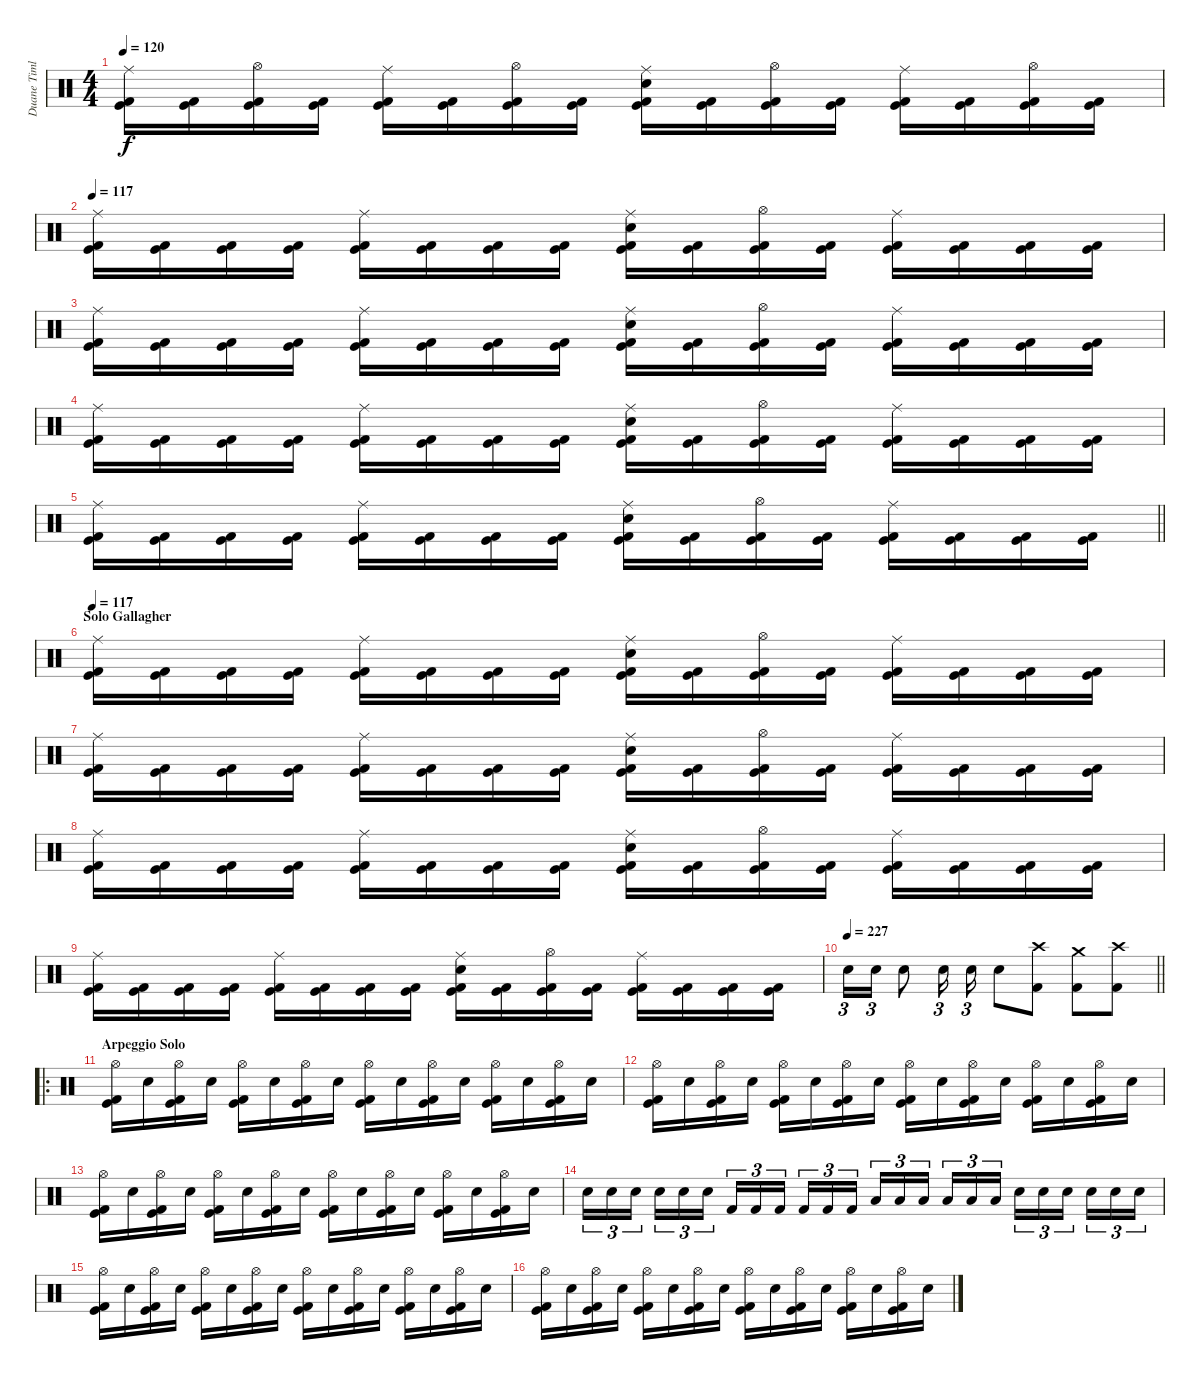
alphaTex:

\track ("Duane Timlin" "Duane Timl") {instrument percussion}
\staff {score}
\articulation defaults
\ts (4 4)
\tempo 120
\clef neutral
\ks c
("Ride (middle)" "Kick (hit)" "Kick (hit) 2").16{dy f} ("Kick (hit)" "Kick (hit) 2").16 ("Hi-Hat (open)" "Kick (hit)" "Kick (hit) 2").16 ("Kick (hit)" "Kick (hit) 2").16 ("Ride (middle)" "Kick (hit)" "Kick (hit) 2").16 ("Kick (hit)" "Kick (hit) 2").16 ("Hi-Hat (open)" "Kick (hit)" "Kick (hit) 2").16 ("Kick (hit)" "Kick (hit) 2").16 ("Ride (middle)" "Snare (hit) 2" "Kick (hit)" "Kick (hit) 2").16 ("Kick (hit)" "Kick (hit) 2").16 ("Hi-Hat (open)" "Kick (hit)" "Kick (hit) 2").16 ("Kick (hit)" "Kick (hit) 2").16 ("Ride (middle)" "Kick (hit)" "Kick (hit) 2").16 ("Kick (hit)" "Kick (hit) 2").16 ("Hi-Hat (open)" "Kick (hit)" "Kick (hit) 2").16 ("Kick (hit)" "Kick (hit) 2").16 |
\tempo 117
("Ride (middle)" "Kick (hit)" "Kick (hit) 2").16 ("Kick (hit)" "Kick (hit) 2").16 ("Kick (hit)" "Kick (hit) 2").16 ("Kick (hit)" "Kick (hit) 2").16 ("Ride (middle)" "Kick (hit)" "Kick (hit) 2").16 ("Kick (hit)" "Kick (hit) 2").16 ("Kick (hit)" "Kick (hit) 2").16 ("Kick (hit)" "Kick (hit) 2").16 ("Ride (middle)" "Snare (hit) 2" "Kick (hit)" "Kick (hit) 2").16 ("Kick (hit)" "Kick (hit) 2").16 ("Hi-Hat (open)" "Kick (hit)" "Kick (hit) 2").16 ("Kick (hit)" "Kick (hit) 2").16 ("Ride (middle)" "Kick (hit)" "Kick (hit) 2").16 ("Kick (hit)" "Kick (hit) 2").16 ("Kick (hit)" "Kick (hit) 2").16 ("Kick (hit)" "Kick (hit) 2").16 |
("Ride (middle)" "Kick (hit)" "Kick (hit) 2").16 ("Kick (hit)" "Kick (hit) 2").16 ("Kick (hit)" "Kick (hit) 2").16 ("Kick (hit)" "Kick (hit) 2").16 ("Ride (middle)" "Kick (hit)" "Kick (hit) 2").16 ("Kick (hit)" "Kick (hit) 2").16 ("Kick (hit)" "Kick (hit) 2").16 ("Kick (hit)" "Kick (hit) 2").16 ("Ride (middle)" "Snare (hit) 2" "Kick (hit)" "Kick (hit) 2").16 ("Kick (hit)" "Kick (hit) 2").16 ("Hi-Hat (open)" "Kick (hit)" "Kick (hit) 2").16 ("Kick (hit)" "Kick (hit) 2").16 ("Ride (middle)" "Kick (hit)" "Kick (hit) 2").16 ("Kick (hit)" "Kick (hit) 2").16 ("Kick (hit)" "Kick (hit) 2").16 ("Kick (hit)" "Kick (hit) 2").16 |
("Ride (middle)" "Kick (hit)" "Kick (hit) 2").16 ("Kick (hit)" "Kick (hit) 2").16 ("Kick (hit)" "Kick (hit) 2").16 ("Kick (hit)" "Kick (hit) 2").16 ("Ride (middle)" "Kick (hit)" "Kick (hit) 2").16 ("Kick (hit)" "Kick (hit) 2").16 ("Kick (hit)" "Kick (hit) 2").16 ("Kick (hit)" "Kick (hit) 2").16 ("Ride (middle)" "Snare (hit) 2" "Kick (hit)" "Kick (hit) 2").16 ("Kick (hit)" "Kick (hit) 2").16 ("Hi-Hat (open)" "Kick (hit)" "Kick (hit) 2").16 ("Kick (hit)" "Kick (hit) 2").16 ("Ride (middle)" "Kick (hit)" "Kick (hit) 2").16 ("Kick (hit)" "Kick (hit) 2").16 ("Kick (hit)" "Kick (hit) 2").16 ("Kick (hit)" "Kick (hit) 2").16 |
\barLineRight lightlight
("Ride (middle)" "Kick (hit)" "Kick (hit) 2").16 ("Kick (hit)" "Kick (hit) 2").16 ("Kick (hit)" "Kick (hit) 2").16 ("Kick (hit)" "Kick (hit) 2").16 ("Ride (middle)" "Kick (hit)" "Kick (hit) 2").16 ("Kick (hit)" "Kick (hit) 2").16 ("Kick (hit)" "Kick (hit) 2").16 ("Kick (hit)" "Kick (hit) 2").16 ("Ride (middle)" "Snare (hit) 2" "Kick (hit)" "Kick (hit) 2").16 ("Kick (hit)" "Kick (hit) 2").16 ("Hi-Hat (open)" "Kick (hit)" "Kick (hit) 2").16 ("Kick (hit)" "Kick (hit) 2").16 ("Ride (middle)" "Kick (hit)" "Kick (hit) 2").16 ("Kick (hit)" "Kick (hit) 2").16 ("Kick (hit)" "Kick (hit) 2").16 ("Kick (hit)" "Kick (hit) 2").16 |
\section ("" "Solo Gallagher")
\tempo 117
("Ride (middle)" "Kick (hit)" "Kick (hit) 2").16 ("Kick (hit)" "Kick (hit) 2").16 ("Kick (hit)" "Kick (hit) 2").16 ("Kick (hit)" "Kick (hit) 2").16 ("Ride (middle)" "Kick (hit)" "Kick (hit) 2").16 ("Kick (hit)" "Kick (hit) 2").16 ("Kick (hit)" "Kick (hit) 2").16 ("Kick (hit)" "Kick (hit) 2").16 ("Ride (middle)" "Snare (hit) 2" "Kick (hit)" "Kick (hit) 2").16 ("Kick (hit)" "Kick (hit) 2").16 ("Hi-Hat (open)" "Kick (hit)" "Kick (hit) 2").16 ("Kick (hit)" "Kick (hit) 2").16 ("Ride (middle)" "Kick (hit)" "Kick (hit) 2").16 ("Kick (hit)" "Kick (hit) 2").16 ("Kick (hit)" "Kick (hit) 2").16 ("Kick (hit)" "Kick (hit) 2").16 |
("Ride (middle)" "Kick (hit)" "Kick (hit) 2").16 ("Kick (hit)" "Kick (hit) 2").16 ("Kick (hit)" "Kick (hit) 2").16 ("Kick (hit)" "Kick (hit) 2").16 ("Ride (middle)" "Kick (hit)" "Kick (hit) 2").16 ("Kick (hit)" "Kick (hit) 2").16 ("Kick (hit)" "Kick (hit) 2").16 ("Kick (hit)" "Kick (hit) 2").16 ("Ride (middle)" "Snare (hit) 2" "Kick (hit)" "Kick (hit) 2").16 ("Kick (hit)" "Kick (hit) 2").16 ("Hi-Hat (open)" "Kick (hit)" "Kick (hit) 2").16 ("Kick (hit)" "Kick (hit) 2").16 ("Ride (middle)" "Kick (hit)" "Kick (hit) 2").16 ("Kick (hit)" "Kick (hit) 2").16 ("Kick (hit)" "Kick (hit) 2").16 ("Kick (hit)" "Kick (hit) 2").16 |
("Ride (middle)" "Kick (hit)" "Kick (hit) 2").16 ("Kick (hit)" "Kick (hit) 2").16 ("Kick (hit)" "Kick (hit) 2").16 ("Kick (hit)" "Kick (hit) 2").16 ("Ride (middle)" "Kick (hit)" "Kick (hit) 2").16 ("Kick (hit)" "Kick (hit) 2").16 ("Kick (hit)" "Kick (hit) 2").16 ("Kick (hit)" "Kick (hit) 2").16 ("Ride (middle)" "Snare (hit) 2" "Kick (hit)" "Kick (hit) 2").16 ("Kick (hit)" "Kick (hit) 2").16 ("Hi-Hat (open)" "Kick (hit)" "Kick (hit) 2").16 ("Kick (hit)" "Kick (hit) 2").16 ("Ride (middle)" "Kick (hit)" "Kick (hit) 2").16 ("Kick (hit)" "Kick (hit) 2").16 ("Kick (hit)" "Kick (hit) 2").16 ("Kick (hit)" "Kick (hit) 2").16 |
("Ride (middle)" "Kick (hit)" "Kick (hit) 2").16 ("Kick (hit)" "Kick (hit) 2").16 ("Kick (hit)" "Kick (hit) 2").16 ("Kick (hit)" "Kick (hit) 2").16 ("Ride (middle)" "Kick (hit)" "Kick (hit) 2").16 ("Kick (hit)" "Kick (hit) 2").16 ("Kick (hit)" "Kick (hit) 2").16 ("Kick (hit)" "Kick (hit) 2").16 ("Ride (middle)" "Snare (hit) 2" "Kick (hit)" "Kick (hit) 2").16 ("Kick (hit)" "Kick (hit) 2").16 ("Hi-Hat (open)" "Kick (hit)" "Kick (hit) 2").16 ("Kick (hit)" "Kick (hit) 2").16 ("Ride (middle)" "Kick (hit)" "Kick (hit) 2").16 ("Kick (hit)" "Kick (hit) 2").16 ("Kick (hit)" "Kick (hit) 2").16 ("Kick (hit)" "Kick (hit) 2").16 |
\tempo 227
\barLineRight lightlight "Snare (hit) 2".16{tu (3 2)} "Snare (hit) 2".16{tu (3 2)} "Snare (hit) 2".8 "Snare (hit) 2".16{tu (3 2)} "Snare (hit) 2".16{tu (3 2)} "Snare (hit) 2".8
("Crash high (hit)" "Kick (hit) 2").8 ("Crash medium (hit)" "Kick (hit) 2").8 ("Crash high (hit)" "Kick (hit) 2").8 |
\ro
\section ("" "Arpeggio Solo")
("Hi-Hat (open)" "Kick (hit)" "Kick (hit) 2").16 "Snare (hit) 2".16 ("Hi-Hat (open)" "Kick (hit)" "Kick (hit) 2").16 "Snare (hit) 2".16 ("Hi-Hat (open)" "Kick (hit)" "Kick (hit) 2").16 "Snare (hit) 2".16 ("Hi-Hat (open)" "Kick (hit)" "Kick (hit) 2").16 "Snare (hit) 2".16 ("Hi-Hat (open)" "Kick (hit)" "Kick (hit) 2").16 "Snare (hit) 2".16 ("Hi-Hat (open)" "Kick (hit)" "Kick (hit) 2").16 "Snare (hit) 2".16 ("Hi-Hat (open)" "Kick (hit)" "Kick (hit) 2").16 "Snare (hit) 2".16 ("Hi-Hat (open)" "Kick (hit)" "Kick (hit) 2").16 "Snare (hit) 2".16 |
("Hi-Hat (open)" "Kick (hit)" "Kick (hit) 2").16 "Snare (hit) 2".16 ("Hi-Hat (open)" "Kick (hit)" "Kick (hit) 2").16 "Snare (hit) 2".16 ("Hi-Hat (open)" "Kick (hit)" "Kick (hit) 2").16 "Snare (hit) 2".16 ("Hi-Hat (open)" "Kick (hit)" "Kick (hit) 2").16 "Snare (hit) 2".16 ("Hi-Hat (open)" "Kick (hit)" "Kick (hit) 2").16 "Snare (hit) 2".16 ("Hi-Hat (open)" "Kick (hit)" "Kick (hit) 2").16 "Snare (hit) 2".16 ("Hi-Hat (open)" "Kick (hit)" "Kick (hit) 2").16 "Snare (hit) 2".16 ("Hi-Hat (open)" "Kick (hit)" "Kick (hit) 2").16 "Snare (hit) 2".16 |
("Hi-Hat (open)" "Kick (hit)" "Kick (hit) 2").16 "Snare (hit) 2".16 ("Hi-Hat (open)" "Kick (hit)" "Kick (hit) 2").16 "Snare (hit) 2".16 ("Hi-Hat (open)" "Kick (hit)" "Kick (hit) 2").16 "Snare (hit) 2".16 ("Hi-Hat (open)" "Kick (hit)" "Kick (hit) 2").16 "Snare (hit) 2".16 ("Hi-Hat (open)" "Kick (hit)" "Kick (hit) 2").16 "Snare (hit) 2".16 ("Hi-Hat (open)" "Kick (hit)" "Kick (hit) 2").16 "Snare (hit) 2".16 ("Hi-Hat (open)" "Kick (hit)" "Kick (hit) 2").16 "Snare (hit) 2".16 ("Hi-Hat (open)" "Kick (hit)" "Kick (hit) 2").16 "Snare (hit) 2".16 |
"Snare (hit) 2".16{tu (3 2)} "Snare (hit) 2".16{tu (3 2)} "Snare (hit) 2".16{tu (3 2) beam splitsecondary} "Snare (hit) 2".16{tu (3 2)} "Snare (hit) 2".16{tu (3 2)} "Snare (hit) 2".16{tu (3 2)} "Kick (hit) 2".16{tu (3 2)} "Kick (hit) 2".16{tu (3 2)} "Kick (hit) 2".16{tu (3 2) beam splitsecondary} "Kick (hit) 2".16{tu (3 2)} "Kick (hit) 2".16{tu (3 2)} "Kick (hit) 2".16{tu (3 2)} "Low Floor Tom (hit)".16{tu (3 2)} "Low Floor Tom (hit)".16{tu (3 2)} "Low Floor Tom (hit)".16{tu (3 2) beam splitsecondary} "Low Floor Tom (hit)".16{tu (3 2)} "Low Floor Tom (hit)".16{tu (3 2)} "Low Floor Tom (hit)".16{tu (3 2)} "Snare (hit) 2".16{tu (3 2)} "Snare (hit) 2".16{tu (3 2)} "Snare (hit) 2".16{tu (3 2) beam splitsecondary} "Snare (hit) 2".16{tu (3 2)} "Snare (hit) 2".16{tu (3 2)} "Snare (hit) 2".16{tu (3 2)} |
("Hi-Hat (open)" "Kick (hit)" "Kick (hit) 2").16 "Snare (hit) 2".16 ("Hi-Hat (open)" "Kick (hit)" "Kick (hit) 2").16 "Snare (hit) 2".16 ("Hi-Hat (open)" "Kick (hit)" "Kick (hit) 2").16 "Snare (hit) 2".16 ("Hi-Hat (open)" "Kick (hit)" "Kick (hit) 2").16 "Snare (hit) 2".16 ("Hi-Hat (open)" "Kick (hit)" "Kick (hit) 2").16 "Snare (hit) 2".16 ("Hi-Hat (open)" "Kick (hit)" "Kick (hit) 2").16 "Snare (hit) 2".16 ("Hi-Hat (open)" "Kick (hit)" "Kick (hit) 2").16 "Snare (hit) 2".16 ("Hi-Hat (open)" "Kick (hit)" "Kick (hit) 2").16 "Snare (hit) 2".16 |
("Hi-Hat (open)" "Kick (hit)" "Kick (hit) 2").16 "Snare (hit) 2".16 ("Hi-Hat (open)" "Kick (hit)" "Kick (hit) 2").16 "Snare (hit) 2".16 ("Hi-Hat (open)" "Kick (hit)" "Kick (hit) 2").16 "Snare (hit) 2".16 ("Hi-Hat (open)" "Kick (hit)" "Kick (hit) 2").16 "Snare (hit) 2".16 ("Hi-Hat (open)" "Kick (hit)" "Kick (hit) 2").16 "Snare (hit) 2".16 ("Hi-Hat (open)" "Kick (hit)" "Kick (hit) 2").16 "Snare (hit) 2".16 ("Hi-Hat (open)" "Kick (hit)" "Kick (hit) 2").16 "Snare (hit) 2".16 ("Hi-Hat (open)" "Kick (hit)" "Kick (hit) 2").16 "Snare (hit) 2".16
